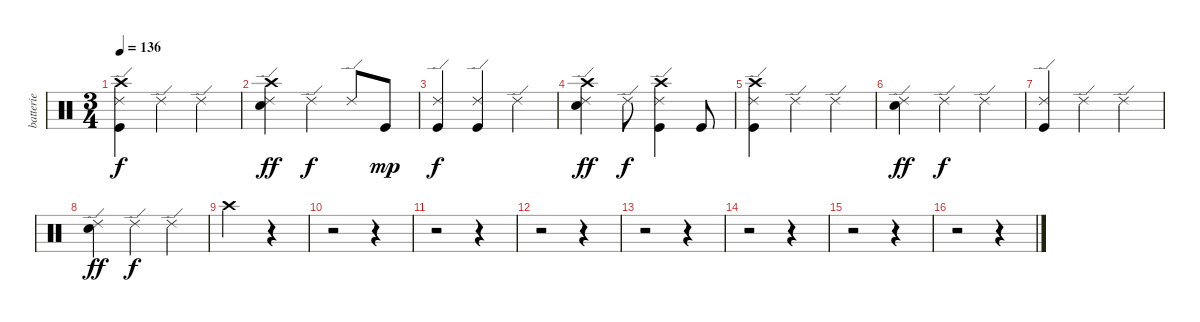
\track ("batterie" "batterie") {instrument percussion}
\staff {score}
\articulation defaults
\ts (3 4)
\tempo 136
\clef neutral
\ks c
("Kick (hit)" "Ride (edge) 2" "Crash high (hit)").4{dy f} "Ride (edge) 2".4 "Ride (edge) 2".4 |
("Electric Snare (hit)" "Ride (edge) 2" "Crash high (hit)").4{dy ff} "Ride (edge) 2".4{dy f} "Ride (edge) 2".8 "Kick (hit)".8{dy mp} |
("Kick (hit)" "Ride (edge) 2").4{dy f} ("Kick (hit)" "Ride (edge) 2").4 "Ride (edge) 2".4 |
("Electric Snare (hit)" "Ride (edge) 2" "Crash high (hit)").4{dy ff} "Ride (edge) 2".8{dy f} ("Kick (hit)" "Ride (edge) 2" "Crash high (hit)").4 "Kick (hit)".8 |
("Kick (hit)" "Ride (edge) 2" "Crash high (hit)").4 "Ride (edge) 2".4 "Ride (edge) 2".4 |
("Electric Snare (hit)" "Ride (edge) 2").4{dy ff} "Ride (edge) 2".4{dy f} "Ride (edge) 2".4 |
("Kick (hit)" "Ride (edge) 2").4 "Ride (edge) 2".4 "Ride (edge) 2".4 |
("Electric Snare (hit)" "Ride (edge) 2").4{dy ff} "Ride (edge) 2".4{dy f} "Ride (edge) 2".4 |
"Crash high (hit)".2 r.4 |
r.2 r.4 |
r.2 r.4 |
r.2 r.4 |
r.2 r.4 |
r.2 r.4 |
r.2 r.4 |
r.2 r.4
